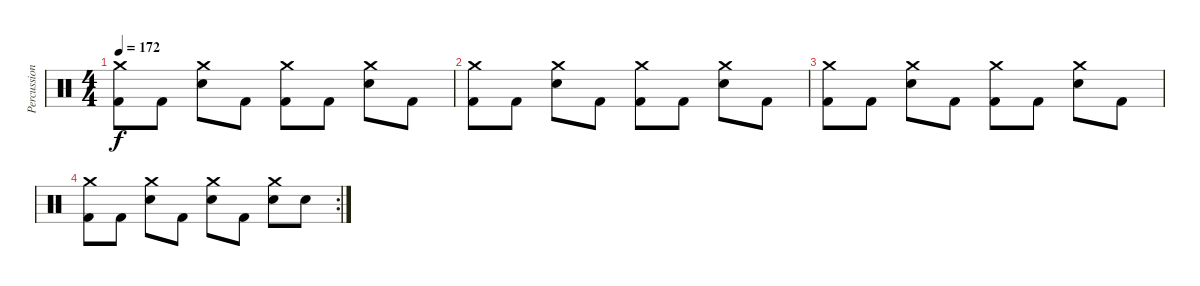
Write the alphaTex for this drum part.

\track ("Percussions" "Percussion") {instrument percussion}
\staff {score}
\articulation defaults
\ts (4 4)
\tempo 172
\clef neutral
\ks c
("Crash medium (hit)" "Kick (hit) 2").8{dy f} "Kick (hit) 2".8 ("Crash medium (hit)" "Electric Snare (hit)").8 "Kick (hit) 2".8 ("Crash medium (hit)" "Kick (hit) 2").8 "Kick (hit) 2".8 ("Crash medium (hit)" "Electric Snare (hit)").8 "Kick (hit) 2".8 |
("Crash medium (hit)" "Kick (hit) 2").8 "Kick (hit) 2".8 ("Crash medium (hit)" "Electric Snare (hit)").8 "Kick (hit) 2".8 ("Crash medium (hit)" "Kick (hit) 2").8 "Kick (hit) 2".8 ("Crash medium (hit)" "Electric Snare (hit)").8 "Kick (hit) 2".8 |
("Crash medium (hit)" "Kick (hit) 2").8 "Kick (hit) 2".8 ("Crash medium (hit)" "Electric Snare (hit)").8 "Kick (hit) 2".8 ("Crash medium (hit)" "Kick (hit) 2").8 "Kick (hit) 2".8 ("Crash medium (hit)" "Electric Snare (hit)").8 "Kick (hit) 2".8 |
\rc 2
("Crash medium (hit)" "Kick (hit) 2").8 "Kick (hit) 2".8 ("Crash medium (hit)" "Electric Snare (hit)").8 "Kick (hit) 2".8 ("Crash medium (hit)" "Electric Snare (hit)").8 "Kick (hit) 2".8 ("Crash medium (hit)" "Electric Snare (hit)").8 "Electric Snare (hit)".8
